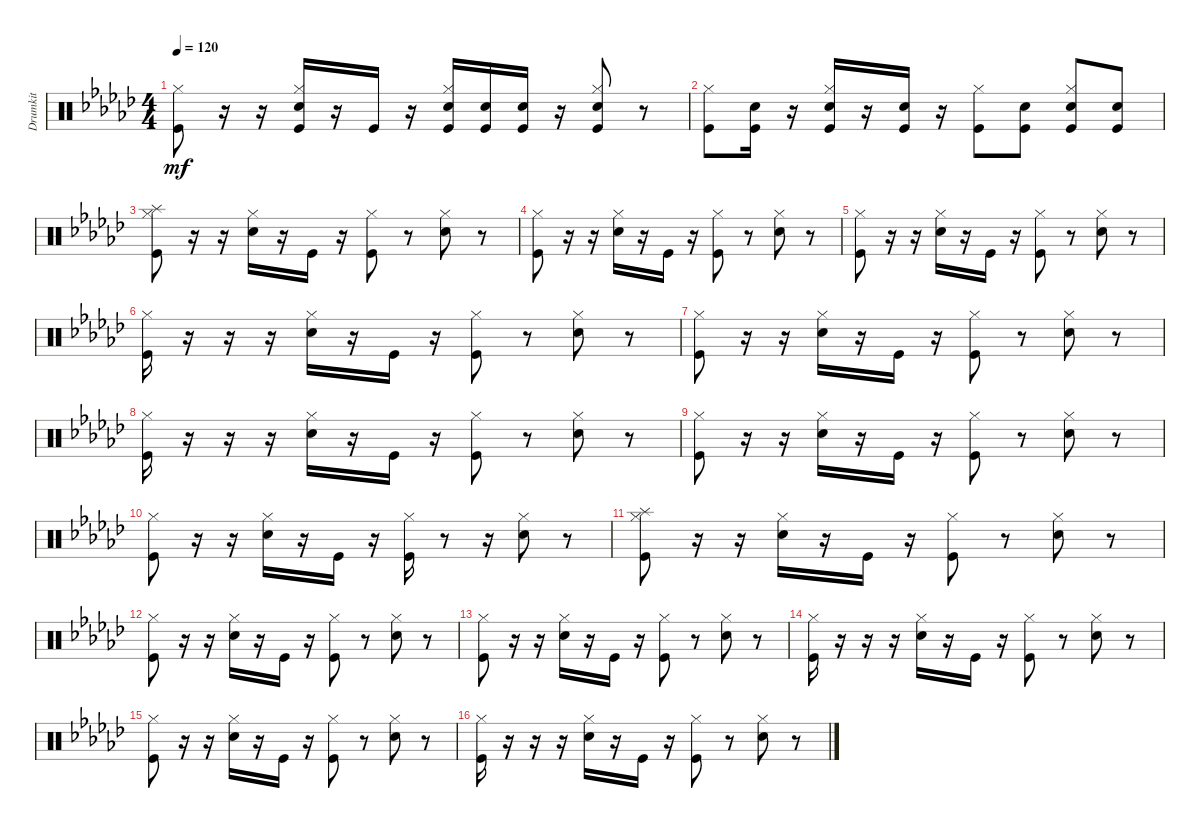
\track ("Drumkit" "Drumkit") {instrument percussion}
\staff {score}
\articulation defaults
\ts (4 4)
\tempo 120
\clef neutral
\ks ebminor
("Kick (hit)" "Hi-Hat (closed)").8{dy mf} r.16 r.16 ("Hi-Hat (closed)" "Snare (hit) 2" "Kick (hit)").16 r.16 "Kick (hit)".16 r.16 ("Kick (hit)" "Hi-Hat (closed)" "Snare (hit) 2").16 ("Snare (hit) 2" "Kick (hit)").16 ("Snare (hit) 2" "Kick (hit)").16 r.16 ("Hi-Hat (closed)" "Snare (hit) 2" "Kick (hit)").8 r.8 |
("Kick (hit)" "Hi-Hat (closed)").8 ("Kick (hit)" "Snare (hit) 2").16 r.16 ("Hi-Hat (closed)" "Snare (hit) 2" "Kick (hit)").16 r.16 ("Kick (hit)" "Snare (hit) 2").16 r.16 ("Kick (hit)" "Hi-Hat (closed)").8 ("Snare (hit) 2" "Kick (hit)").8 ("Snare (hit) 2" "Hi-Hat (closed)" "Kick (hit)").8 ("Kick (hit)" "Snare (hit) 2").8 |
("Kick (hit)" "Hi-Hat (closed)" "Splash (hit)").8 r.16 r.16 ("Snare (hit) 2" "Hi-Hat (closed)").16 r.16 "Kick (hit)".16 r.16 ("Kick (hit)" "Hi-Hat (closed)").8 r.8 ("Snare (hit) 2" "Hi-Hat (closed)").8 r.8 |
("Kick (hit)" "Hi-Hat (closed)").8 r.16 r.16 ("Snare (hit) 2" "Hi-Hat (closed)").16 r.16 "Kick (hit)".16 r.16 ("Kick (hit)" "Hi-Hat (closed)").8 r.8 ("Snare (hit) 2" "Hi-Hat (closed)").8 r.8 |
("Kick (hit)" "Hi-Hat (closed)").8 r.16 r.16 ("Snare (hit) 2" "Hi-Hat (closed)").16 r.16 "Kick (hit)".16 r.16 ("Kick (hit)" "Hi-Hat (closed)").8 r.8 ("Snare (hit) 2" "Hi-Hat (closed)").8 r.8 |
("Kick (hit)" "Hi-Hat (closed)").16 r.16 r.16 r.16 ("Snare (hit) 2" "Hi-Hat (closed)").16 r.16 "Kick (hit)".16 r.16 ("Kick (hit)" "Hi-Hat (closed)").8 r.8 ("Snare (hit) 2" "Hi-Hat (closed)").8 r.8 |
("Kick (hit)" "Hi-Hat (closed)").8 r.16 r.16 ("Snare (hit) 2" "Hi-Hat (closed)").16 r.16 "Kick (hit)".16 r.16 ("Kick (hit)" "Hi-Hat (closed)").8 r.8 ("Snare (hit) 2" "Hi-Hat (closed)").8 r.8 |
("Kick (hit)" "Hi-Hat (closed)").16 r.16 r.16 r.16 ("Snare (hit) 2" "Hi-Hat (closed)").16 r.16 "Kick (hit)".16 r.16 ("Kick (hit)" "Hi-Hat (closed)").8 r.8 ("Snare (hit) 2" "Hi-Hat (closed)").8 r.8 |
("Kick (hit)" "Hi-Hat (closed)").8 r.16 r.16 ("Snare (hit) 2" "Hi-Hat (closed)").16 r.16 "Kick (hit)".16 r.16 ("Kick (hit)" "Hi-Hat (closed)").8 r.8 ("Snare (hit) 2" "Hi-Hat (closed)").8 r.8 |
("Kick (hit)" "Hi-Hat (closed)").8 r.16 r.16 ("Snare (hit) 2" "Hi-Hat (closed)").16 r.16 "Kick (hit)".16 r.16 ("Kick (hit)" "Hi-Hat (closed)").16 r.8 r.16 ("Snare (hit) 2" "Hi-Hat (closed)").8 r.8 |
("Kick (hit)" "Hi-Hat (closed)" "Splash (hit)").8 r.16 r.16 ("Snare (hit) 2" "Hi-Hat (closed)").16 r.16 "Kick (hit)".16 r.16 ("Kick (hit)" "Hi-Hat (closed)").8 r.8 ("Snare (hit) 2" "Hi-Hat (closed)").8 r.8 |
("Kick (hit)" "Hi-Hat (closed)").8 r.16 r.16 ("Snare (hit) 2" "Hi-Hat (closed)").16 r.16 "Kick (hit)".16 r.16 ("Kick (hit)" "Hi-Hat (closed)").8 r.8 ("Snare (hit) 2" "Hi-Hat (closed)").8 r.8 |
("Kick (hit)" "Hi-Hat (closed)").8 r.16 r.16 ("Snare (hit) 2" "Hi-Hat (closed)").16 r.16 "Kick (hit)".16 r.16 ("Kick (hit)" "Hi-Hat (closed)").8 r.8 ("Snare (hit) 2" "Hi-Hat (closed)").8 r.8 |
("Kick (hit)" "Hi-Hat (closed)").16 r.16 r.16 r.16 ("Snare (hit) 2" "Hi-Hat (closed)").16 r.16 "Kick (hit)".16 r.16 ("Kick (hit)" "Hi-Hat (closed)").8 r.8 ("Snare (hit) 2" "Hi-Hat (closed)").8 r.8 |
("Kick (hit)" "Hi-Hat (closed)").8 r.16 r.16 ("Snare (hit) 2" "Hi-Hat (closed)").16 r.16 "Kick (hit)".16 r.16 ("Kick (hit)" "Hi-Hat (closed)").8 r.8 ("Snare (hit) 2" "Hi-Hat (closed)").8 r.8 |
("Kick (hit)" "Hi-Hat (closed)").16 r.16 r.16 r.16 ("Snare (hit) 2" "Hi-Hat (closed)").16 r.16 "Kick (hit)".16 r.16 ("Kick (hit)" "Hi-Hat (closed)").8 r.8 ("Snare (hit) 2" "Hi-Hat (closed)").8 r.8
